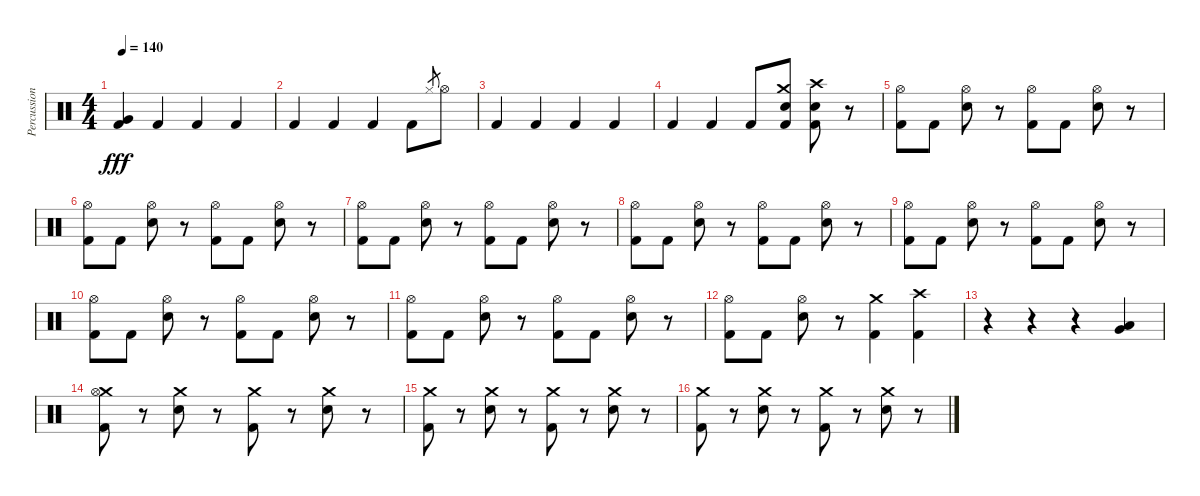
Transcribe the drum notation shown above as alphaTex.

\track ("Percussion" "Percussion") {instrument percussion}
\staff {score}
\articulation defaults
\ts (4 4)
\tempo 140
\clef neutral
\ks c
("Very Low Tom (hit)" "Kick (hit) 2").4{dy fff} "Kick (hit) 2".4 "Kick (hit) 2".4 "Kick (hit) 2".4 |
"Kick (hit) 2".4 "Kick (hit) 2".4 "Kick (hit) 2".4 "Kick (hit) 2".8 "Hi-Hat (closed)".8{gr} "Hi-Hat (open)".8 |
"Kick (hit) 2".4 "Kick (hit) 2".4 "Kick (hit) 2".4 "Kick (hit) 2".4 |
"Kick (hit) 2".4 "Kick (hit) 2".4 "Kick (hit) 2".8 ("Crash medium (hit)" "Electric Snare (hit)" "Kick (hit) 2").8 ("Crash high (hit)" "Electric Snare (hit)" "Kick (hit) 2").8 r.8 |
("Hi-Hat (open)" "Kick (hit) 2").8 "Kick (hit) 2".8 ("Hi-Hat (open)" "Electric Snare (hit)").8 r.8 ("Hi-Hat (open)" "Kick (hit) 2").8 "Kick (hit) 2".8 ("Hi-Hat (open)" "Electric Snare (hit)").8 r.8 |
("Hi-Hat (open)" "Kick (hit) 2").8 "Kick (hit) 2".8 ("Hi-Hat (open)" "Electric Snare (hit)").8 r.8 ("Hi-Hat (open)" "Kick (hit) 2").8 "Kick (hit) 2".8 ("Hi-Hat (open)" "Electric Snare (hit)").8 r.8 |
("Hi-Hat (open)" "Kick (hit) 2").8 "Kick (hit) 2".8 ("Hi-Hat (open)" "Electric Snare (hit)").8 r.8 ("Hi-Hat (open)" "Kick (hit) 2").8 "Kick (hit) 2".8 ("Hi-Hat (open)" "Electric Snare (hit)").8 r.8 |
("Hi-Hat (open)" "Kick (hit) 2").8 "Kick (hit) 2".8 ("Hi-Hat (open)" "Electric Snare (hit)").8 r.8 ("Hi-Hat (open)" "Kick (hit) 2").8 "Kick (hit) 2".8 ("Hi-Hat (open)" "Electric Snare (hit)").8 r.8 |
("Hi-Hat (open)" "Kick (hit) 2").8 "Kick (hit) 2".8 ("Hi-Hat (open)" "Electric Snare (hit)").8 r.8 ("Hi-Hat (open)" "Kick (hit) 2").8 "Kick (hit) 2".8 ("Hi-Hat (open)" "Electric Snare (hit)").8 r.8 |
("Hi-Hat (open)" "Kick (hit) 2").8 "Kick (hit) 2".8 ("Hi-Hat (open)" "Electric Snare (hit)").8 r.8 ("Hi-Hat (open)" "Kick (hit) 2").8 "Kick (hit) 2".8 ("Hi-Hat (open)" "Electric Snare (hit)").8 r.8 |
("Hi-Hat (open)" "Kick (hit) 2").8 "Kick (hit) 2".8 ("Hi-Hat (open)" "Electric Snare (hit)").8 r.8 ("Hi-Hat (open)" "Kick (hit) 2").8 "Kick (hit) 2".8 ("Hi-Hat (open)" "Electric Snare (hit)").8 r.8 |
("Hi-Hat (open)" "Kick (hit) 2").8 "Kick (hit) 2".8 ("Hi-Hat (open)" "Electric Snare (hit)").8 r.8 ("Crash medium (hit)" "Kick (hit) 2").4 ("Crash high (hit)" "Kick (hit) 2").4 |
r.4 r.4 r.4 ("Low Floor Tom (hit)" "Very Low Tom (hit)").4 |
("Crash medium (hit)" "Hi-Hat (open)" "Kick (hit) 2").8 r.8 ("Crash medium (hit)" "Electric Snare (hit)").8 r.8 ("Crash medium (hit)" "Kick (hit) 2").8 r.8 ("Crash medium (hit)" "Electric Snare (hit)").8 r.8 |
("Crash medium (hit)" "Kick (hit) 2").8 r.8 ("Crash medium (hit)" "Electric Snare (hit)").8 r.8 ("Crash medium (hit)" "Kick (hit) 2").8 r.8 ("Crash medium (hit)" "Electric Snare (hit)").8 r.8 |
("Crash medium (hit)" "Kick (hit) 2").8 r.8 ("Crash medium (hit)" "Electric Snare (hit)").8 r.8 ("Crash medium (hit)" "Kick (hit) 2").8 r.8 ("Crash medium (hit)" "Electric Snare (hit)").8 r.8
